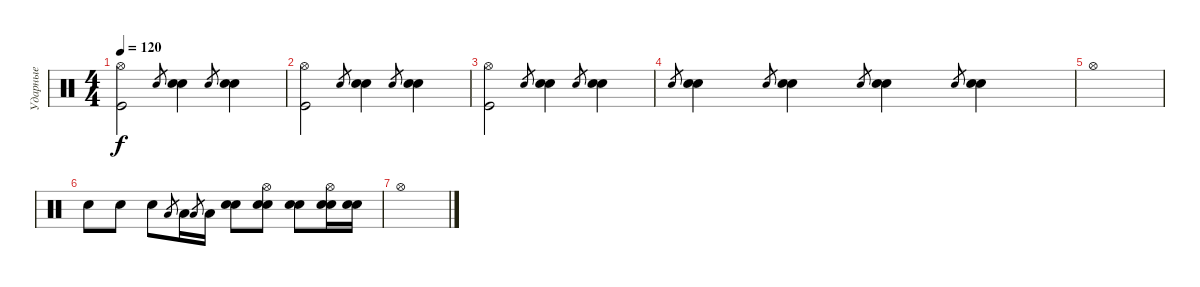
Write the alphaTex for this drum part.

\track ("Ударные" "Ударные") {instrument percussion}
\staff {score}
\articulation defaults
\ts (4 4)
\tempo 120
\clef neutral
\ks c
("Kick (hit)" "Hi-Hat (open)").2{dy f} "Snare (hit) 2".8{gr} ("Snare (hit) 2" "Electric Snare (hit)").4 "Snare (hit) 2".8{gr} ("Snare (hit) 2" "Electric Snare (hit)").4 |
("Kick (hit)" "Hi-Hat (open)").2 "Snare (hit) 2".8{gr} ("Snare (hit) 2" "Electric Snare (hit)").4 "Snare (hit) 2".8{gr} ("Snare (hit) 2" "Electric Snare (hit)").4 |
("Kick (hit)" "Hi-Hat (open)").2 "Snare (hit) 2".8{gr} ("Snare (hit) 2" "Electric Snare (hit)").4 "Snare (hit) 2".8{gr} ("Snare (hit) 2" "Electric Snare (hit)").4 |
"Snare (hit) 2".8{gr} ("Snare (hit) 2" "Electric Snare (hit)").4 "Snare (hit) 2".8{gr} ("Snare (hit) 2" "Electric Snare (hit)").4 "Snare (hit) 2".8{gr} ("Snare (hit) 2" "Electric Snare (hit)").4 "Snare (hit) 2".8{gr} ("Snare (hit) 2" "Electric Snare (hit)").4 |
"Hi-Hat (open)".1 |
"Electric Snare (hit)".8 "Snare (hit) 2".8 "Snare (hit) 2".8 "Low Tom (hit)".8{gr} "Low Tom (hit)".16 "Low Tom (hit)".8{gr} "Low Tom (hit)".16 ("Snare (hit) 2" "Electric Snare (hit)").8 ("Snare (hit) 2" "Electric Snare (hit)" "Hi-Hat (open)").8 ("Snare (hit) 2" "Electric Snare (hit)").8 ("Snare (hit) 2" "Electric Snare (hit)" "Hi-Hat (open)").16 ("Snare (hit) 2" "Electric Snare (hit)").16 |
"Hi-Hat (open)".1
